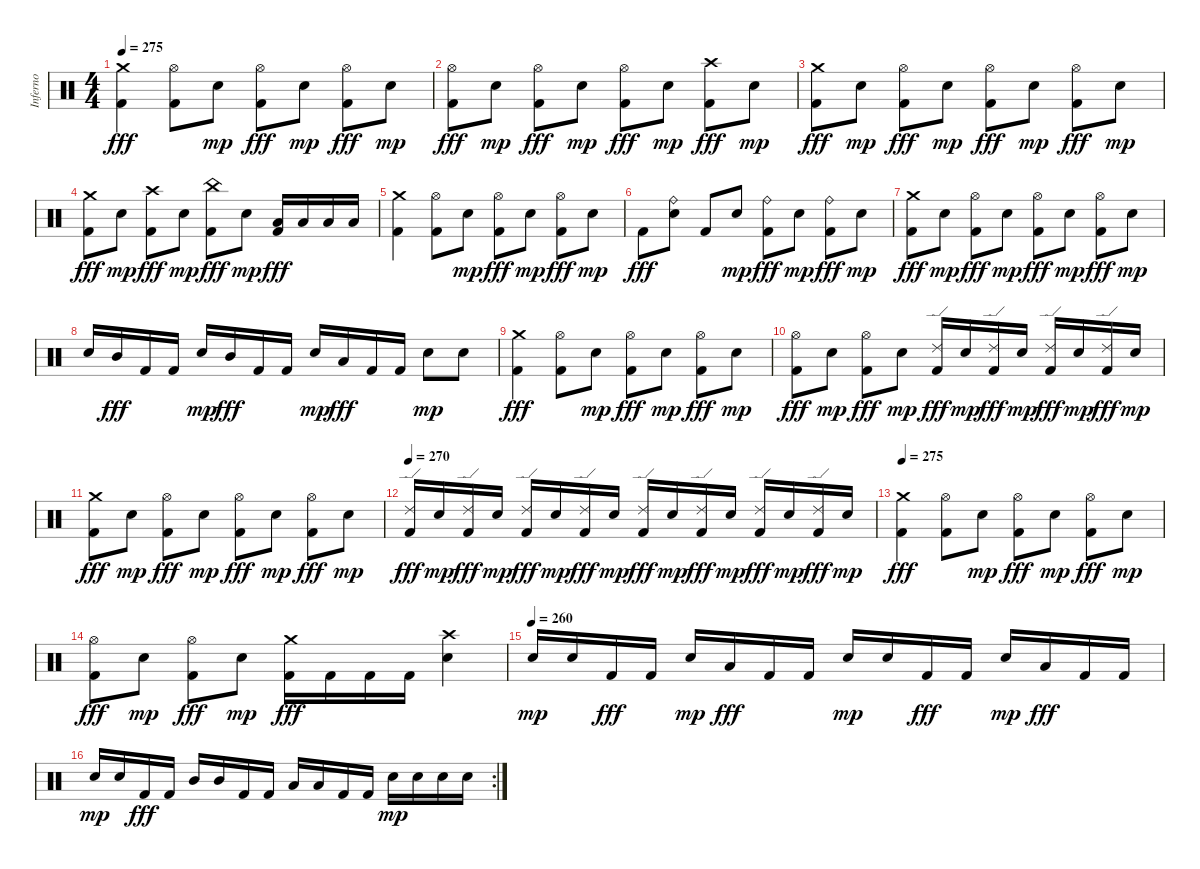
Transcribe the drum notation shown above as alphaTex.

\track ("Inferno" "Inferno") {instrument percussion}
\staff {score}
\articulation defaults
\ts (4 4)
\tempo 275
\clef neutral
\ks c
("Kick (hit) 2" "Crash medium (hit)").4{dy fff} ("Kick (hit) 2" "Hi-Hat (open)").8 "Electric Snare (hit)".8{dy mp} ("Kick (hit) 2" "Hi-Hat (open)").8{dy fff} "Electric Snare (hit)".8{dy mp} ("Kick (hit) 2" "Hi-Hat (open)").8{dy fff} "Electric Snare (hit)".8{dy mp} |
("Kick (hit) 2" "Hi-Hat (open)").8{dy fff} "Electric Snare (hit)".8{dy mp} ("Kick (hit) 2" "Hi-Hat (open)").8{dy fff} "Electric Snare (hit)".8{dy mp} ("Kick (hit) 2" "Hi-Hat (open)").8{dy fff} "Electric Snare (hit)".8{dy mp} ("Kick (hit) 2" "Crash high (hit)").8{dy fff} "Electric Snare (hit)".8{dy mp} |
("Kick (hit) 2" "Crash medium (hit)").8{dy fff} "Electric Snare (hit)".8{dy mp} ("Kick (hit) 2" "Hi-Hat (open)").8{dy fff} "Electric Snare (hit)".8{dy mp} ("Kick (hit) 2" "Hi-Hat (open)").8{dy fff} "Electric Snare (hit)".8{dy mp} ("Kick (hit) 2" "Hi-Hat (open)").8{dy fff} "Electric Snare (hit)".8{dy mp} |
("Kick (hit) 2" "Crash medium (hit)").8{dy fff} "Electric Snare (hit)".8{dy mp} ("Kick (hit) 2" "Crash high (hit)").8{dy fff} "Electric Snare (hit)".8{dy mp} ("Kick (hit) 2" "China (hit)").8{dy fff} "Electric Snare (hit)".8{dy mp} ("Kick (hit) 2" "Low Tom (hit)").16{dy fff} "Low Tom (hit)".16 "Low Tom (hit)".16 "Low Tom (hit)".16 |
("Kick (hit) 2" "Crash medium (hit)").4 ("Kick (hit) 2" "Hi-Hat (open)").8 "Electric Snare (hit)".8{dy mp} ("Kick (hit) 2" "Hi-Hat (open)").8{dy fff} "Electric Snare (hit)".8{dy mp} ("Kick (hit) 2" "Hi-Hat (open)").8{dy fff} "Electric Snare (hit)".8{dy mp} |
"Kick (hit) 2".8{dy fff} ("Electric Snare (hit)" "Ride (bell)").8 "Kick (hit) 2".8 "Electric Snare (hit)".8{dy mp} ("Kick (hit) 2" "Ride (bell)").8{dy fff} "Electric Snare (hit)".8{dy mp} ("Kick (hit) 2" "Ride (bell)").8{dy fff} "Electric Snare (hit)".8{dy mp} |
("Kick (hit) 2" "Crash medium (hit)").8{dy fff} "Electric Snare (hit)".8{dy mp} ("Kick (hit) 2" "Hi-Hat (open)").8{dy fff} "Electric Snare (hit)".8{dy mp} ("Kick (hit) 2" "Hi-Hat (open)").8{dy fff} "Electric Snare (hit)".8{dy mp} ("Kick (hit) 2" "Hi-Hat (open)").8{dy fff} "Electric Snare (hit)".8{dy mp} |
"Electric Snare (hit)".16 "Mid Tom (hit)".16{dy fff} "Kick (hit) 2".16 "Kick (hit) 2".16 "Electric Snare (hit)".16{dy mp} "Mid Tom (hit)".16{dy fff} "Kick (hit) 2".16 "Kick (hit) 2".16 "Electric Snare (hit)".16{dy mp} "Low Tom (hit)".16{dy fff} "Kick (hit) 2".16 "Kick (hit) 2".16 "Electric Snare (hit)".8{dy mp} "Electric Snare (hit)".8 |
("Kick (hit) 2" "Crash medium (hit)").4{dy fff} ("Kick (hit) 2" "Hi-Hat (open)").8 "Electric Snare (hit)".8{dy mp} ("Kick (hit) 2" "Hi-Hat (open)").8{dy fff} "Electric Snare (hit)".8{dy mp} ("Kick (hit) 2" "Hi-Hat (open)").8{dy fff} "Electric Snare (hit)".8{dy mp} |
("Kick (hit) 2" "Hi-Hat (open)").8{dy fff} "Electric Snare (hit)".8{dy mp} ("Kick (hit) 2" "Hi-Hat (open)").8{dy fff} "Electric Snare (hit)".8{dy mp} ("Kick (hit) 2" "Ride (edge) 2").16{dy fff} "Electric Snare (hit)".16{dy mp} ("Kick (hit) 2" "Ride (edge) 2").16{dy fff} "Electric Snare (hit)".16{dy mp} ("Kick (hit) 2" "Ride (edge) 2").16{dy fff} "Electric Snare (hit)".16{dy mp} ("Kick (hit) 2" "Ride (edge) 2").16{dy fff} "Electric Snare (hit)".16{dy mp} |
("Kick (hit) 2" "Crash medium (hit)").8{dy fff} "Electric Snare (hit)".8{dy mp} ("Kick (hit) 2" "Hi-Hat (open)").8{dy fff} "Electric Snare (hit)".8{dy mp} ("Kick (hit) 2" "Hi-Hat (open)").8{dy fff} "Electric Snare (hit)".8{dy mp} ("Kick (hit) 2" "Hi-Hat (open)").8{dy fff} "Electric Snare (hit)".8{dy mp} |
\tempo 270
("Kick (hit) 2" "Ride (edge) 2").16{dy fff} "Electric Snare (hit)".16{dy mp} ("Kick (hit) 2" "Ride (edge) 2").16{dy fff} "Electric Snare (hit)".16{dy mp} ("Kick (hit) 2" "Ride (edge) 2").16{dy fff} "Electric Snare (hit)".16{dy mp} ("Kick (hit) 2" "Ride (edge) 2").16{dy fff} "Electric Snare (hit)".16{dy mp} ("Kick (hit) 2" "Ride (edge) 2").16{dy fff} "Electric Snare (hit)".16{dy mp} ("Kick (hit) 2" "Ride (edge) 2").16{dy fff} "Electric Snare (hit)".16{dy mp} ("Kick (hit) 2" "Ride (edge) 2").16{dy fff} "Electric Snare (hit)".16{dy mp} ("Kick (hit) 2" "Ride (edge) 2").16{dy fff} "Electric Snare (hit)".16{dy mp} |
\tempo 275
("Kick (hit) 2" "Crash medium (hit)").4{dy fff} ("Kick (hit) 2" "Hi-Hat (open)").8 "Electric Snare (hit)".8{dy mp} ("Kick (hit) 2" "Hi-Hat (open)").8{dy fff} "Electric Snare (hit)".8{dy mp} ("Kick (hit) 2" "Hi-Hat (open)").8{dy fff} "Electric Snare (hit)".8{dy mp} |
("Kick (hit) 2" "Hi-Hat (open)").8{dy fff} "Electric Snare (hit)".8{dy mp} ("Kick (hit) 2" "Hi-Hat (open)").8{dy fff} "Electric Snare (hit)".8{dy mp} ("Kick (hit) 2" "Crash medium (hit)").16{dy fff} "Kick (hit) 2".16 "Kick (hit) 2".16 "Kick (hit) 2".16 ("Electric Snare (hit)" "Crash high (hit)").4 |
\tempo (260)
"Electric Snare (hit)".16{dy mp} "Electric Snare (hit)".16 "Kick (hit) 2".16{dy fff} "Kick (hit) 2".16 "Electric Snare (hit)".16{dy mp} "Low Tom (hit)".16{dy fff} "Kick (hit) 2".16 "Kick (hit) 2".16 "Electric Snare (hit)".16{dy mp} "Electric Snare (hit)".16 "Kick (hit) 2".16{dy fff} "Kick (hit) 2".16 "Electric Snare (hit)".16{dy mp} "Low Tom (hit)".16{dy fff} "Kick (hit) 2".16 "Kick (hit) 2".16 |
\rc 2 "Electric Snare (hit)".16{dy mp} "Electric Snare (hit)".16 "Kick (hit) 2".16{dy fff} "Kick (hit) 2".16 "Mid Tom (hit)".16 "Mid Tom (hit)".16 "Kick (hit) 2".16 "Kick (hit) 2".16 "Low Tom (hit)".16 "Low Tom (hit)".16 "Kick (hit) 2".16 "Kick (hit) 2".16 "Electric Snare (hit)".16{dy mp} "Electric Snare (hit)".16 "Electric Snare (hit)".16 "Electric Snare (hit)".16
